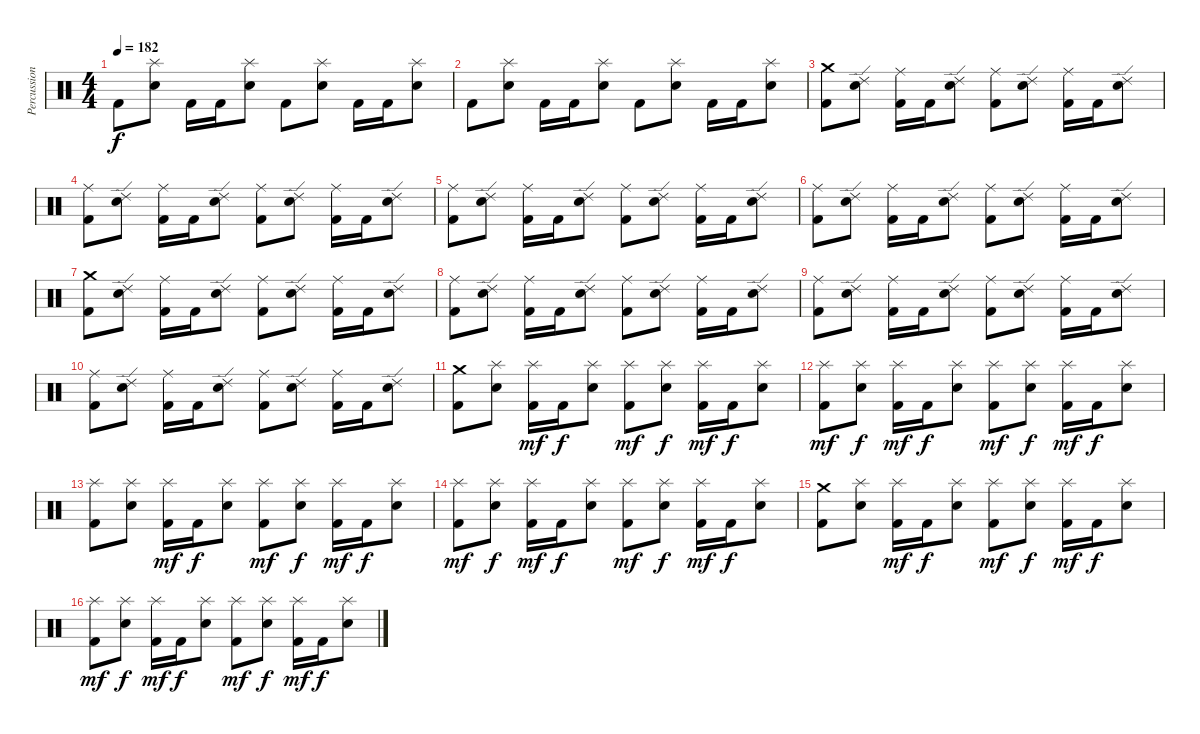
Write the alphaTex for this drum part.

\track ("Percussion" "Percussion") {instrument percussion}
\staff {score}
\articulation defaults
\ts (4 4)
\tempo 182
\clef neutral
\ks c "Kick (hit) 2".8{dy f}
("Splash (hit)" "Electric Snare (hit)").8 "Kick (hit) 2".16 "Kick (hit) 2".16 ("Splash (hit)" "Electric Snare (hit)").8 "Kick (hit) 2".8 ("Splash (hit)" "Electric Snare (hit)").8 "Kick (hit) 2".16 "Kick (hit) 2".16 ("Splash (hit)" "Electric Snare (hit)").8 |
"Kick (hit) 2".8 ("Splash (hit)" "Electric Snare (hit)").8 "Kick (hit) 2".16 "Kick (hit) 2".16 ("Splash (hit)" "Electric Snare (hit)").8 "Kick (hit) 2".8 ("Splash (hit)" "Electric Snare (hit)").8 "Kick (hit) 2".16 "Kick (hit) 2".16 ("Splash (hit)" "Electric Snare (hit)").8 |
("Crash medium (hit)" "Kick (hit) 2").8 ("Ride (edge) 2" "Electric Snare (hit)").8 ("Ride (middle)" "Kick (hit) 2").16 "Kick (hit) 2".16 ("Ride (edge) 2" "Electric Snare (hit)").8 ("Ride (middle)" "Kick (hit) 2").8 ("Ride (edge) 2" "Electric Snare (hit)").8 ("Ride (middle)" "Kick (hit) 2").16 "Kick (hit) 2".16 ("Ride (edge) 2" "Electric Snare (hit)").8 |
("Ride (middle)" "Kick (hit) 2").8 ("Ride (edge) 2" "Electric Snare (hit)").8 ("Ride (middle)" "Kick (hit) 2").16 "Kick (hit) 2".16 ("Ride (edge) 2" "Electric Snare (hit)").8 ("Ride (middle)" "Kick (hit) 2").8 ("Ride (edge) 2" "Electric Snare (hit)").8 ("Ride (middle)" "Kick (hit) 2").16 "Kick (hit) 2".16 ("Ride (edge) 2" "Electric Snare (hit)").8 |
("Ride (middle)" "Kick (hit) 2").8 ("Ride (edge) 2" "Electric Snare (hit)").8 ("Ride (middle)" "Kick (hit) 2").16 "Kick (hit) 2".16 ("Ride (edge) 2" "Electric Snare (hit)").8 ("Ride (middle)" "Kick (hit) 2").8 ("Ride (edge) 2" "Electric Snare (hit)").8 ("Ride (middle)" "Kick (hit) 2").16 "Kick (hit) 2".16 ("Ride (edge) 2" "Electric Snare (hit)").8 |
("Ride (middle)" "Kick (hit) 2").8 ("Ride (edge) 2" "Electric Snare (hit)").8 ("Ride (middle)" "Kick (hit) 2").16 "Kick (hit) 2".16 ("Ride (edge) 2" "Electric Snare (hit)").8 ("Ride (middle)" "Kick (hit) 2").8 ("Ride (edge) 2" "Electric Snare (hit)").8 ("Ride (middle)" "Kick (hit) 2").16 "Kick (hit) 2".16 ("Ride (edge) 2" "Electric Snare (hit)").8 |
("Crash medium (hit)" "Kick (hit) 2").8 ("Ride (edge) 2" "Electric Snare (hit)").8 ("Ride (middle)" "Kick (hit) 2").16 "Kick (hit) 2".16 ("Ride (edge) 2" "Electric Snare (hit)").8 ("Ride (middle)" "Kick (hit) 2").8 ("Ride (edge) 2" "Electric Snare (hit)").8 ("Ride (middle)" "Kick (hit) 2").16 "Kick (hit) 2".16 ("Ride (edge) 2" "Electric Snare (hit)").8 |
("Ride (middle)" "Kick (hit) 2").8 ("Ride (edge) 2" "Electric Snare (hit)").8 ("Ride (middle)" "Kick (hit) 2").16 "Kick (hit) 2".16 ("Ride (edge) 2" "Electric Snare (hit)").8 ("Ride (middle)" "Kick (hit) 2").8 ("Ride (edge) 2" "Electric Snare (hit)").8 ("Ride (middle)" "Kick (hit) 2").16 "Kick (hit) 2".16 ("Ride (edge) 2" "Electric Snare (hit)").8 |
("Ride (middle)" "Kick (hit) 2").8 ("Ride (edge) 2" "Electric Snare (hit)").8 ("Ride (middle)" "Kick (hit) 2").16 "Kick (hit) 2".16 ("Ride (edge) 2" "Electric Snare (hit)").8 ("Ride (middle)" "Kick (hit) 2").8 ("Ride (edge) 2" "Electric Snare (hit)").8 ("Ride (middle)" "Kick (hit) 2").16 "Kick (hit) 2".16 ("Ride (edge) 2" "Electric Snare (hit)").8 |
("Ride (middle)" "Kick (hit) 2").8 ("Ride (edge) 2" "Electric Snare (hit)").8 ("Ride (middle)" "Kick (hit) 2").16 "Kick (hit) 2".16 ("Ride (edge) 2" "Electric Snare (hit)").8 ("Ride (middle)" "Kick (hit) 2").8 ("Ride (edge) 2" "Electric Snare (hit)").8 ("Ride (middle)" "Kick (hit) 2").16 "Kick (hit) 2".16 ("Ride (edge) 2" "Electric Snare (hit)").8 |
("Crash medium (hit)" "Kick (hit) 2").8 ("Splash (hit)" "Electric Snare (hit)").8 ("Splash (hit)" "Kick (hit) 2").16{dy mf} "Kick (hit) 2".16{dy f} ("Splash (hit)" "Electric Snare (hit)").8 ("Splash (hit)" "Kick (hit) 2").8{dy mf} ("Splash (hit)" "Electric Snare (hit)").8{dy f} ("Splash (hit)" "Kick (hit) 2").16{dy mf} "Kick (hit) 2".16{dy f} ("Splash (hit)" "Electric Snare (hit)").8 |
("Splash (hit)" "Kick (hit) 2").8{dy mf} ("Splash (hit)" "Electric Snare (hit)").8{dy f} ("Splash (hit)" "Kick (hit) 2").16{dy mf} "Kick (hit) 2".16{dy f} ("Splash (hit)" "Electric Snare (hit)").8 ("Splash (hit)" "Kick (hit) 2").8{dy mf} ("Splash (hit)" "Electric Snare (hit)").8{dy f} ("Splash (hit)" "Kick (hit) 2").16{dy mf} "Kick (hit) 2".16{dy f} ("Splash (hit)" "Electric Snare (hit)").8 |
("Splash (hit)" "Kick (hit) 2").8 ("Splash (hit)" "Electric Snare (hit)").8 ("Splash (hit)" "Kick (hit) 2").16{dy mf} "Kick (hit) 2".16{dy f} ("Splash (hit)" "Electric Snare (hit)").8 ("Splash (hit)" "Kick (hit) 2").8{dy mf} ("Splash (hit)" "Electric Snare (hit)").8{dy f} ("Splash (hit)" "Kick (hit) 2").16{dy mf} "Kick (hit) 2".16{dy f} ("Splash (hit)" "Electric Snare (hit)").8 |
("Splash (hit)" "Kick (hit) 2").8{dy mf} ("Splash (hit)" "Electric Snare (hit)").8{dy f} ("Splash (hit)" "Kick (hit) 2").16{dy mf} "Kick (hit) 2".16{dy f} ("Splash (hit)" "Electric Snare (hit)").8 ("Splash (hit)" "Kick (hit) 2").8{dy mf} ("Splash (hit)" "Electric Snare (hit)").8{dy f} ("Splash (hit)" "Kick (hit) 2").16{dy mf} "Kick (hit) 2".16{dy f} ("Splash (hit)" "Electric Snare (hit)").8 |
("Crash medium (hit)" "Kick (hit) 2").8 ("Splash (hit)" "Electric Snare (hit)").8 ("Splash (hit)" "Kick (hit) 2").16{dy mf} "Kick (hit) 2".16{dy f} ("Splash (hit)" "Electric Snare (hit)").8 ("Splash (hit)" "Kick (hit) 2").8{dy mf} ("Splash (hit)" "Electric Snare (hit)").8{dy f} ("Splash (hit)" "Kick (hit) 2").16{dy mf} "Kick (hit) 2".16{dy f} ("Splash (hit)" "Electric Snare (hit)").8 |
("Splash (hit)" "Kick (hit) 2").8{dy mf} ("Splash (hit)" "Electric Snare (hit)").8{dy f} ("Splash (hit)" "Kick (hit) 2").16{dy mf} "Kick (hit) 2".16{dy f} ("Splash (hit)" "Electric Snare (hit)").8 ("Splash (hit)" "Kick (hit) 2").8{dy mf} ("Splash (hit)" "Electric Snare (hit)").8{dy f} ("Splash (hit)" "Kick (hit) 2").16{dy mf} "Kick (hit) 2".16{dy f} ("Splash (hit)" "Electric Snare (hit)").8
